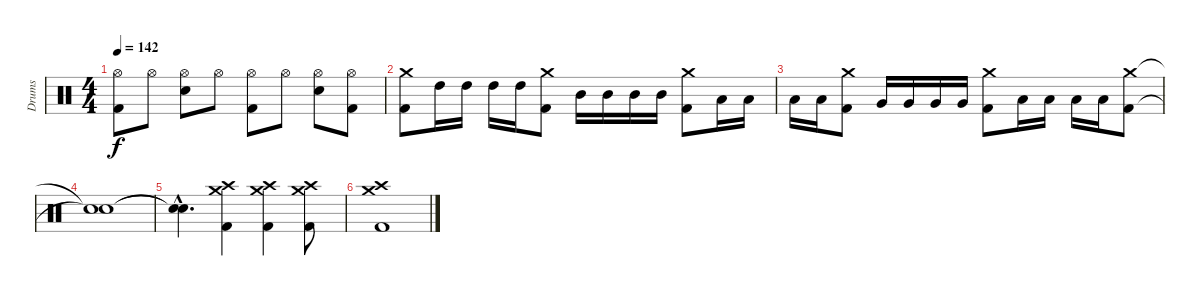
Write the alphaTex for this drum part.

\track ("Drums" "Drums") {instrument percussion}
\staff {score}
\articulation defaults
\ts (4 4)
\tempo 142
\clef neutral
\ks c
("Hi-Hat (open)" "Kick (hit) 2").8{dy f} "Hi-Hat (open)".8 ("Hi-Hat (open)" "Snare (hit) 2").8 "Hi-Hat (open)".8 ("Hi-Hat (open)" "Kick (hit) 2").8 "Hi-Hat (open)".8 ("Hi-Hat (open)" "Snare (hit) 2").8 ("Hi-Hat (open)" "Kick (hit) 2").8 |
("Crash medium (hit)" "Kick (hit) 2").8 "High Tom (hit)".16 "High Tom (hit)".16 "High Tom (hit)".16 "High Tom (hit)".16 ("Crash medium (hit)" "Kick (hit) 2").8 "Mid Tom (hit)".16 "Mid Tom (hit)".16 "Mid Tom (hit)".16 "Mid Tom (hit)".16 ("Crash medium (hit)" "Kick (hit) 2").8 "Low Tom (hit)".16 "Low Tom (hit)".16 |
"Low Tom (hit)".16 "Low Tom (hit)".16 ("Crash medium (hit)" "Kick (hit) 2").8 "Very Low Tom (hit)".16 "Very Low Tom (hit)".16 "Very Low Tom (hit)".16 "Very Low Tom (hit)".16 ("Crash medium (hit)" "Kick (hit) 2").8 "Low Floor Tom (hit)".16 "Low Floor Tom (hit)".16 "Low Floor Tom (hit)".16 "Low Floor Tom (hit)".16 ("Crash medium (hit)" "Kick (hit) 2").8 |
("Snare (hit)"{t} "Snare (hit)"{t}).1 |
("Snare (hit)"{hac t} "Snare (hit)"{hac t}).4{d} ("Crash medium (hit)" "Crash high (hit)" "Kick (hit) 2").4 ("Crash medium (hit)" "Crash high (hit)" "Kick (hit) 2").4 ("Crash medium (hit)" "Crash high (hit)" "Kick (hit) 2").8 |
("Crash medium (hit)" "Crash high (hit)" "Kick (hit) 2").1
